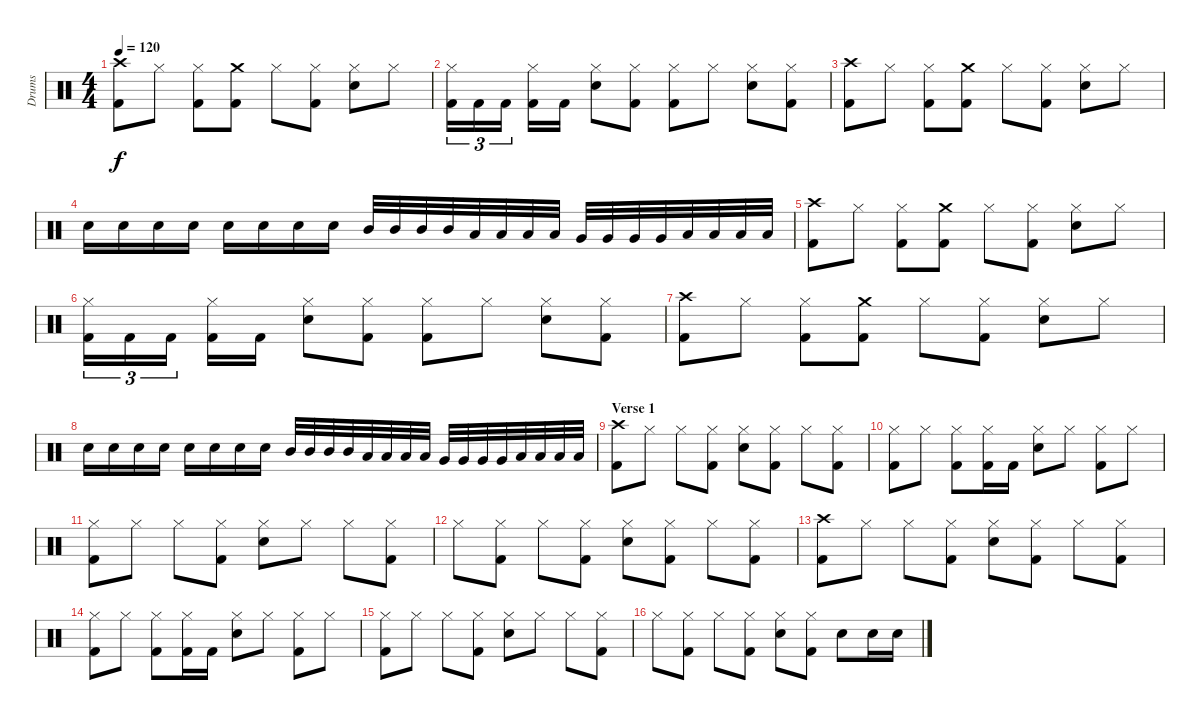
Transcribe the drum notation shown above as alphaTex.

\track ("Drums" "Drums") {instrument percussion}
\staff {score}
\articulation defaults
\ts (4 4)
\tempo 120
\clef neutral
\ks c
("Crash high (hit)" "Kick (hit) 2").8{dy f} "Hi-Hat (closed)".8 ("Hi-Hat (closed)" "Kick (hit) 2").8 ("Crash medium (hit)" "Kick (hit) 2").8 "Hi-Hat (closed)".8 ("Hi-Hat (closed)" "Kick (hit) 2").8 ("Hi-Hat (closed)" "Snare (hit) 2").8 "Hi-Hat (closed)".8 |
("Hi-Hat (closed)" "Kick (hit) 2").16{tu (3 2)} "Kick (hit) 2".16{tu (3 2)} "Kick (hit) 2".16{tu (3 2)} ("Hi-Hat (closed)" "Kick (hit) 2").16 "Kick (hit) 2".16 ("Hi-Hat (closed)" "Snare (hit) 2").8 ("Hi-Hat (closed)" "Kick (hit) 2").8 ("Hi-Hat (closed)" "Kick (hit) 2").8 "Hi-Hat (closed)".8 ("Hi-Hat (closed)" "Snare (hit) 2").8 ("Hi-Hat (closed)" "Kick (hit) 2").8 |
("Crash high (hit)" "Kick (hit) 2").8 "Hi-Hat (closed)".8 ("Hi-Hat (closed)" "Kick (hit) 2").8 ("Crash medium (hit)" "Kick (hit) 2").8 "Hi-Hat (closed)".8 ("Hi-Hat (closed)" "Kick (hit) 2").8 ("Hi-Hat (closed)" "Snare (hit) 2").8 "Hi-Hat (closed)".8 |
"Snare (hit) 2".16 "Snare (hit) 2".16 "Snare (hit) 2".16 "Snare (hit) 2".16 "Snare (hit) 2".16 "Snare (hit) 2".16 "Snare (hit) 2".16 "Snare (hit) 2".16 "Mid Tom (hit)".32 "Mid Tom (hit)".32 "Mid Tom (hit)".32 "Mid Tom (hit)".32 "Low Tom (hit)".32 "Low Tom (hit)".32 "Low Tom (hit)".32 "Low Tom (hit)".32 "Very Low Tom (hit)".32 "Very Low Tom (hit)".32 "Very Low Tom (hit)".32 "Very Low Tom (hit)".32 "Low Floor Tom (hit)".32 "Low Floor Tom (hit)".32 "Low Floor Tom (hit)".32 "Low Floor Tom (hit)".32 |
("Crash high (hit)" "Kick (hit) 2").8 "Hi-Hat (closed)".8 ("Hi-Hat (closed)" "Kick (hit) 2").8 ("Crash medium (hit)" "Kick (hit) 2").8 "Hi-Hat (closed)".8 ("Hi-Hat (closed)" "Kick (hit) 2").8 ("Hi-Hat (closed)" "Snare (hit) 2").8 "Hi-Hat (closed)".8 |
("Hi-Hat (closed)" "Kick (hit) 2").16{tu (3 2)} "Kick (hit) 2".16{tu (3 2)} "Kick (hit) 2".16{tu (3 2)} ("Hi-Hat (closed)" "Kick (hit) 2").16 "Kick (hit) 2".16 ("Hi-Hat (closed)" "Snare (hit) 2").8 ("Hi-Hat (closed)" "Kick (hit) 2").8 ("Hi-Hat (closed)" "Kick (hit) 2").8 "Hi-Hat (closed)".8 ("Hi-Hat (closed)" "Snare (hit) 2").8 ("Hi-Hat (closed)" "Kick (hit) 2").8 |
("Crash high (hit)" "Kick (hit) 2").8 "Hi-Hat (closed)".8 ("Hi-Hat (closed)" "Kick (hit) 2").8 ("Crash medium (hit)" "Kick (hit) 2").8 "Hi-Hat (closed)".8 ("Hi-Hat (closed)" "Kick (hit) 2").8 ("Hi-Hat (closed)" "Snare (hit) 2").8 "Hi-Hat (closed)".8 |
"Snare (hit) 2".16 "Snare (hit) 2".16 "Snare (hit) 2".16 "Snare (hit) 2".16 "Snare (hit) 2".16 "Snare (hit) 2".16 "Snare (hit) 2".16 "Snare (hit) 2".16 "Mid Tom (hit)".32 "Mid Tom (hit)".32 "Mid Tom (hit)".32 "Mid Tom (hit)".32 "Low Tom (hit)".32 "Low Tom (hit)".32 "Low Tom (hit)".32 "Low Tom (hit)".32 "Very Low Tom (hit)".32 "Very Low Tom (hit)".32 "Very Low Tom (hit)".32 "Very Low Tom (hit)".32 "Low Floor Tom (hit)".32 "Low Floor Tom (hit)".32 "Low Floor Tom (hit)".32 "Low Floor Tom (hit)".32 |
\section ("" "Verse 1")
("Crash high (hit)" "Kick (hit) 2").8 "Hi-Hat (closed)".8 "Hi-Hat (closed)".8 ("Hi-Hat (closed)" "Kick (hit) 2").8 ("Hi-Hat (closed)" "Snare (hit) 2").8 ("Hi-Hat (closed)" "Kick (hit) 2").8 "Hi-Hat (closed)".8 ("Hi-Hat (closed)" "Kick (hit) 2").8 |
("Hi-Hat (closed)" "Kick (hit) 2").8 "Hi-Hat (closed)".8 ("Hi-Hat (closed)" "Kick (hit) 2").8 ("Hi-Hat (closed)" "Kick (hit) 2").16 "Kick (hit) 2".16 ("Hi-Hat (closed)" "Snare (hit) 2").8 "Hi-Hat (closed)".8 ("Hi-Hat (closed)" "Kick (hit) 2").8 "Hi-Hat (closed)".8 |
("Hi-Hat (closed)" "Kick (hit) 2").8 "Hi-Hat (closed)".8 "Hi-Hat (closed)".8 ("Hi-Hat (closed)" "Kick (hit) 2").8 ("Hi-Hat (closed)" "Snare (hit) 2").8 "Hi-Hat (closed)".8 "Hi-Hat (closed)".8 ("Hi-Hat (closed)" "Kick (hit) 2").8 |
"Hi-Hat (closed)".8 ("Hi-Hat (closed)" "Kick (hit) 2").8 "Hi-Hat (closed)".8 ("Hi-Hat (closed)" "Kick (hit) 2").8 ("Hi-Hat (closed)" "Snare (hit) 2").8 ("Hi-Hat (closed)" "Kick (hit) 2").8 "Hi-Hat (closed)".8 ("Hi-Hat (closed)" "Kick (hit) 2").8 |
("Crash high (hit)" "Kick (hit) 2").8 "Hi-Hat (closed)".8 "Hi-Hat (closed)".8 ("Hi-Hat (closed)" "Kick (hit) 2").8 ("Hi-Hat (closed)" "Snare (hit) 2").8 ("Hi-Hat (closed)" "Kick (hit) 2").8 "Hi-Hat (closed)".8 ("Hi-Hat (closed)" "Kick (hit) 2").8 |
("Hi-Hat (closed)" "Kick (hit) 2").8 "Hi-Hat (closed)".8 ("Hi-Hat (closed)" "Kick (hit) 2").8 ("Hi-Hat (closed)" "Kick (hit) 2").16 "Kick (hit) 2".16 ("Hi-Hat (closed)" "Snare (hit) 2").8 "Hi-Hat (closed)".8 ("Hi-Hat (closed)" "Kick (hit) 2").8 "Hi-Hat (closed)".8 |
("Hi-Hat (closed)" "Kick (hit) 2").8 "Hi-Hat (closed)".8 "Hi-Hat (closed)".8 ("Hi-Hat (closed)" "Kick (hit) 2").8 ("Hi-Hat (closed)" "Snare (hit) 2").8 "Hi-Hat (closed)".8 "Hi-Hat (closed)".8 ("Hi-Hat (closed)" "Kick (hit) 2").8 |
"Hi-Hat (closed)".8 ("Hi-Hat (closed)" "Kick (hit) 2").8 "Hi-Hat (closed)".8 ("Hi-Hat (closed)" "Kick (hit) 2").8 ("Hi-Hat (closed)" "Snare (hit) 2").8 ("Hi-Hat (closed)" "Kick (hit) 2").8 "Snare (hit) 2".8 "Snare (hit) 2".16 "Snare (hit) 2".16
